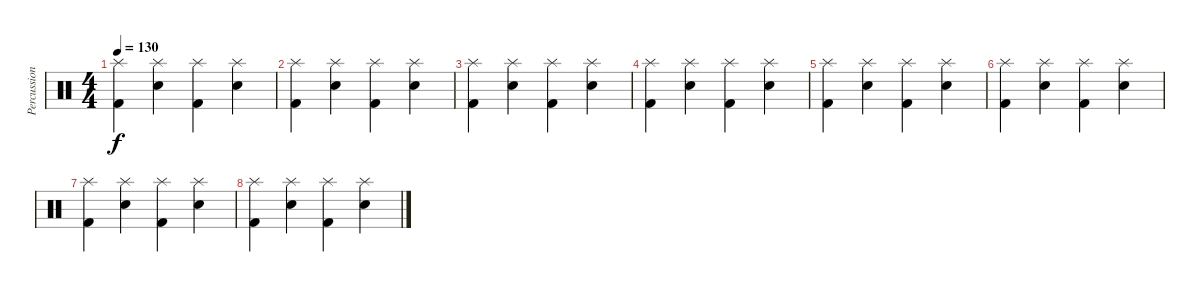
\track ("Percussion" "Percussion") {instrument percussion}
\staff {score}
\articulation defaults
\ts (4 4)
\tempo 130
\clef neutral
\ks c
("Kick (hit) 2" "Splash (hit)").4{dy f} ("Electric Snare (hit)" "Splash (hit)").4 ("Kick (hit) 2" "Splash (hit)").4 ("Electric Snare (hit)" "Splash (hit)").4 |
("Kick (hit) 2" "Splash (hit)").4 ("Electric Snare (hit)" "Splash (hit)").4 ("Kick (hit) 2" "Splash (hit)").4 ("Electric Snare (hit)" "Splash (hit)").4 |
("Kick (hit) 2" "Splash (hit)").4 ("Electric Snare (hit)" "Splash (hit)").4 ("Kick (hit) 2" "Splash (hit)").4 ("Electric Snare (hit)" "Splash (hit)").4 |
("Kick (hit) 2" "Splash (hit)").4 ("Electric Snare (hit)" "Splash (hit)").4 ("Kick (hit) 2" "Splash (hit)").4 ("Electric Snare (hit)" "Splash (hit)").4 |
("Kick (hit) 2" "Splash (hit)").4 ("Electric Snare (hit)" "Splash (hit)").4 ("Kick (hit) 2" "Splash (hit)").4 ("Electric Snare (hit)" "Splash (hit)").4 |
("Kick (hit) 2" "Splash (hit)").4 ("Electric Snare (hit)" "Splash (hit)").4 ("Kick (hit) 2" "Splash (hit)").4 ("Electric Snare (hit)" "Splash (hit)").4 |
("Kick (hit) 2" "Splash (hit)").4 ("Electric Snare (hit)" "Splash (hit)").4 ("Kick (hit) 2" "Splash (hit)").4 ("Electric Snare (hit)" "Splash (hit)").4 |
("Kick (hit) 2" "Splash (hit)").4 ("Electric Snare (hit)" "Splash (hit)").4 ("Kick (hit) 2" "Splash (hit)").4 ("Electric Snare (hit)" "Splash (hit)").4
